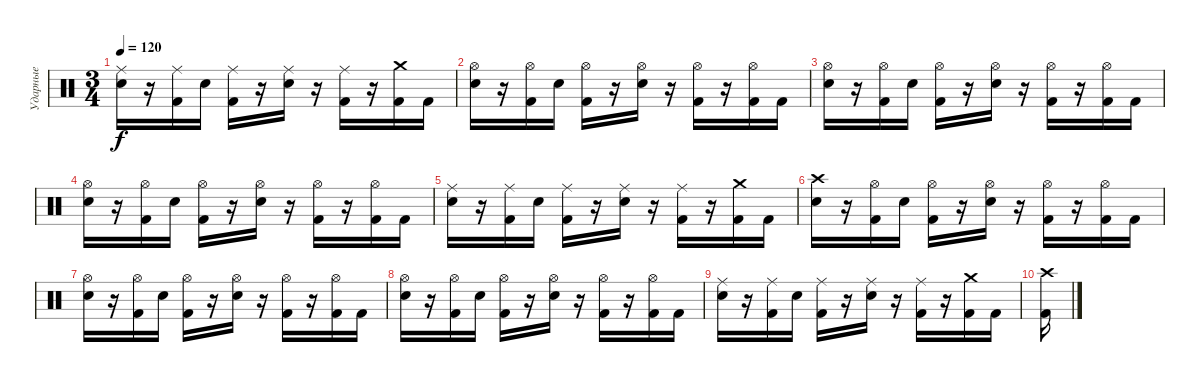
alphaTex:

\track ("Ударные" "Ударные") {instrument percussion}
\staff {score}
\articulation defaults
\ts (3 4)
\tempo 120
\clef neutral
\ks c
("Ride (middle)" "Electric Snare (hit)").16{dy f} r.16 ("Ride (middle)" "Kick (hit) 2").16 "Electric Snare (hit)".16 ("Ride (middle)" "Kick (hit) 2").16 r.16 ("Ride (middle)" "Electric Snare (hit)").16 r.16 ("Ride (middle)" "Kick (hit) 2").16 r.16 ("Crash medium (hit)" "Kick (hit) 2").16 "Kick (hit) 2".16 |
("Hi-Hat (open)" "Electric Snare (hit)").16 r.16 ("Hi-Hat (open)" "Kick (hit) 2").16 "Electric Snare (hit)".16 ("Hi-Hat (open)" "Kick (hit) 2").16 r.16 ("Hi-Hat (open)" "Electric Snare (hit)").16 r.16 ("Hi-Hat (open)" "Kick (hit) 2").16 r.16 ("Hi-Hat (open)" "Kick (hit) 2").16 "Kick (hit) 2".16 |
("Hi-Hat (open)" "Electric Snare (hit)").16 r.16 ("Hi-Hat (open)" "Kick (hit) 2").16 "Electric Snare (hit)".16 ("Hi-Hat (open)" "Kick (hit) 2").16 r.16 ("Hi-Hat (open)" "Electric Snare (hit)").16 r.16 ("Hi-Hat (open)" "Kick (hit) 2").16 r.16 ("Hi-Hat (open)" "Kick (hit) 2").16 "Kick (hit) 2".16 |
("Hi-Hat (open)" "Electric Snare (hit)").16 r.16 ("Hi-Hat (open)" "Kick (hit) 2").16 "Electric Snare (hit)".16 ("Hi-Hat (open)" "Kick (hit) 2").16 r.16 ("Hi-Hat (open)" "Electric Snare (hit)").16 r.16 ("Hi-Hat (open)" "Kick (hit) 2").16 r.16 ("Hi-Hat (open)" "Kick (hit) 2").16 "Kick (hit) 2".16 |
("Ride (middle)" "Electric Snare (hit)").16 r.16 ("Ride (middle)" "Kick (hit) 2").16 "Electric Snare (hit)".16 ("Ride (middle)" "Kick (hit) 2").16 r.16 ("Ride (middle)" "Electric Snare (hit)").16 r.16 ("Ride (middle)" "Kick (hit) 2").16 r.16 ("Crash medium (hit)" "Kick (hit) 2").16 "Kick (hit) 2".16 |
("Crash high (hit)" "Electric Snare (hit)").16 r.16 ("Hi-Hat (open)" "Kick (hit) 2").16 "Electric Snare (hit)".16 ("Hi-Hat (open)" "Kick (hit) 2").16 r.16 ("Hi-Hat (open)" "Electric Snare (hit)").16 r.16 ("Hi-Hat (open)" "Kick (hit) 2").16 r.16 ("Hi-Hat (open)" "Kick (hit) 2").16 "Kick (hit) 2".16 |
("Hi-Hat (open)" "Electric Snare (hit)").16 r.16 ("Hi-Hat (open)" "Kick (hit) 2").16 "Electric Snare (hit)".16 ("Hi-Hat (open)" "Kick (hit) 2").16 r.16 ("Hi-Hat (open)" "Electric Snare (hit)").16 r.16 ("Hi-Hat (open)" "Kick (hit) 2").16 r.16 ("Hi-Hat (open)" "Kick (hit) 2").16 "Kick (hit) 2".16 |
("Hi-Hat (open)" "Electric Snare (hit)").16 r.16 ("Hi-Hat (open)" "Kick (hit) 2").16 "Electric Snare (hit)".16 ("Hi-Hat (open)" "Kick (hit) 2").16 r.16 ("Hi-Hat (open)" "Electric Snare (hit)").16 r.16 ("Hi-Hat (open)" "Kick (hit) 2").16 r.16 ("Hi-Hat (open)" "Kick (hit) 2").16 "Kick (hit) 2".16 |
("Ride (middle)" "Electric Snare (hit)").16 r.16 ("Ride (middle)" "Kick (hit) 2").16 "Electric Snare (hit)".16 ("Ride (middle)" "Kick (hit) 2").16 r.16 ("Ride (middle)" "Electric Snare (hit)").16 r.16 ("Ride (middle)" "Kick (hit) 2").16 r.16 ("Crash medium (hit)" "Kick (hit) 2").16 "Kick (hit) 2".16 |
("Crash high (hit)" "Kick (hit) 2").16
